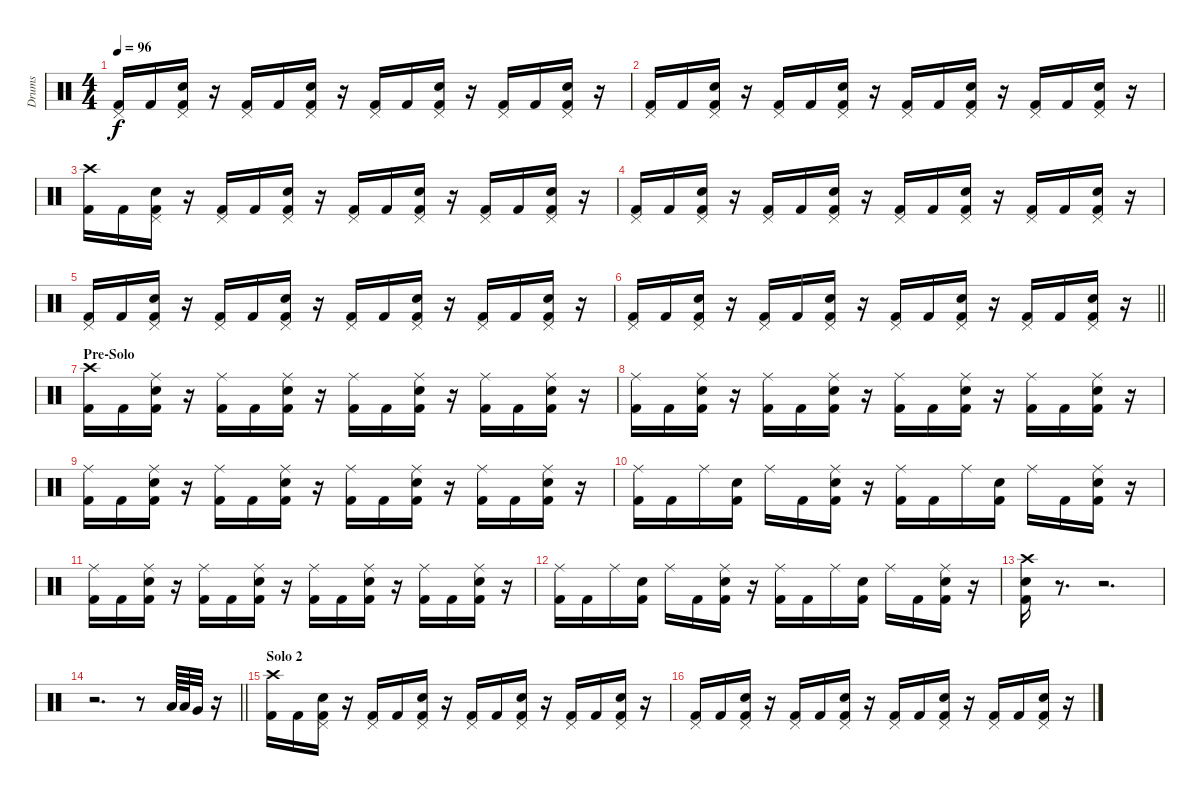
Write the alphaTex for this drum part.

\track ("Drums" "Drums") {instrument percussion}
\staff {score}
\articulation defaults
\ts (4 4)
\tempo 96
\clef neutral
\ks c
("Pedal Hi-Hat (hit)" "Kick (hit) 2").16{dy f} "Kick (hit) 2".16 ("Pedal Hi-Hat (hit)" "Snare (hit) 2" "Kick (hit) 2").16 r.16 ("Pedal Hi-Hat (hit)" "Kick (hit) 2").16 "Kick (hit) 2".16 ("Pedal Hi-Hat (hit)" "Snare (hit) 2" "Kick (hit) 2").16 r.16 ("Pedal Hi-Hat (hit)" "Kick (hit) 2").16 "Kick (hit) 2".16 ("Pedal Hi-Hat (hit)" "Snare (hit) 2" "Kick (hit) 2").16 r.16 ("Pedal Hi-Hat (hit)" "Kick (hit) 2").16 "Kick (hit) 2".16 ("Pedal Hi-Hat (hit)" "Snare (hit) 2" "Kick (hit) 2").16 r.16 |
("Pedal Hi-Hat (hit)" "Kick (hit) 2").16 "Kick (hit) 2".16 ("Pedal Hi-Hat (hit)" "Snare (hit) 2" "Kick (hit) 2").16 r.16 ("Pedal Hi-Hat (hit)" "Kick (hit) 2").16 "Kick (hit) 2".16 ("Pedal Hi-Hat (hit)" "Snare (hit) 2" "Kick (hit) 2").16 r.16 ("Pedal Hi-Hat (hit)" "Kick (hit) 2").16 "Kick (hit) 2".16 ("Pedal Hi-Hat (hit)" "Snare (hit) 2" "Kick (hit) 2").16 r.16 ("Pedal Hi-Hat (hit)" "Kick (hit) 2").16 "Kick (hit) 2".16 ("Pedal Hi-Hat (hit)" "Snare (hit) 2" "Kick (hit) 2").16 r.16 |
("Crash high (hit)" "Kick (hit) 2").16 "Kick (hit) 2".16 ("Pedal Hi-Hat (hit)" "Snare (hit) 2" "Kick (hit) 2").16 r.16 ("Pedal Hi-Hat (hit)" "Kick (hit) 2").16 "Kick (hit) 2".16 ("Pedal Hi-Hat (hit)" "Snare (hit) 2" "Kick (hit) 2").16 r.16 ("Pedal Hi-Hat (hit)" "Kick (hit) 2").16 "Kick (hit) 2".16 ("Pedal Hi-Hat (hit)" "Snare (hit) 2" "Kick (hit) 2").16 r.16 ("Pedal Hi-Hat (hit)" "Kick (hit) 2").16 "Kick (hit) 2".16 ("Pedal Hi-Hat (hit)" "Snare (hit) 2" "Kick (hit) 2").16 r.16 |
("Pedal Hi-Hat (hit)" "Kick (hit) 2").16 "Kick (hit) 2".16 ("Pedal Hi-Hat (hit)" "Snare (hit) 2" "Kick (hit) 2").16 r.16 ("Pedal Hi-Hat (hit)" "Kick (hit) 2").16 "Kick (hit) 2".16 ("Pedal Hi-Hat (hit)" "Snare (hit) 2" "Kick (hit) 2").16 r.16 ("Pedal Hi-Hat (hit)" "Kick (hit) 2").16 "Kick (hit) 2".16 ("Pedal Hi-Hat (hit)" "Snare (hit) 2" "Kick (hit) 2").16 r.16 ("Pedal Hi-Hat (hit)" "Kick (hit) 2").16 "Kick (hit) 2".16 ("Pedal Hi-Hat (hit)" "Snare (hit) 2" "Kick (hit) 2").16 r.16 |
("Pedal Hi-Hat (hit)" "Kick (hit) 2").16 "Kick (hit) 2".16 ("Pedal Hi-Hat (hit)" "Snare (hit) 2" "Kick (hit) 2").16 r.16 ("Pedal Hi-Hat (hit)" "Kick (hit) 2").16 "Kick (hit) 2".16 ("Pedal Hi-Hat (hit)" "Snare (hit) 2" "Kick (hit) 2").16 r.16 ("Pedal Hi-Hat (hit)" "Kick (hit) 2").16 "Kick (hit) 2".16 ("Pedal Hi-Hat (hit)" "Snare (hit) 2" "Kick (hit) 2").16 r.16 ("Pedal Hi-Hat (hit)" "Kick (hit) 2").16 "Kick (hit) 2".16 ("Pedal Hi-Hat (hit)" "Snare (hit) 2" "Kick (hit) 2").16 r.16 |
\barLineRight lightlight
("Pedal Hi-Hat (hit)" "Kick (hit) 2").16 "Kick (hit) 2".16 ("Pedal Hi-Hat (hit)" "Snare (hit) 2" "Kick (hit) 2").16 r.16 ("Pedal Hi-Hat (hit)" "Kick (hit) 2").16 "Kick (hit) 2".16 ("Pedal Hi-Hat (hit)" "Snare (hit) 2" "Kick (hit) 2").16 r.16 ("Pedal Hi-Hat (hit)" "Kick (hit) 2").16 "Kick (hit) 2".16 ("Pedal Hi-Hat (hit)" "Snare (hit) 2" "Kick (hit) 2").16 r.16 ("Pedal Hi-Hat (hit)" "Kick (hit) 2").16 "Kick (hit) 2".16 ("Pedal Hi-Hat (hit)" "Snare (hit) 2" "Kick (hit) 2").16 r.16 |
\section ("" "Pre-Solo")
("Crash high (hit)" "Kick (hit) 2").16 "Kick (hit) 2".16 ("Ride (middle)" "Snare (hit) 2" "Kick (hit) 2").16 r.16 ("Ride (middle)" "Kick (hit) 2").16 "Kick (hit) 2".16 ("Ride (middle)" "Snare (hit) 2" "Kick (hit) 2").16 r.16 ("Ride (middle)" "Kick (hit) 2").16 "Kick (hit) 2".16 ("Ride (middle)" "Snare (hit) 2" "Kick (hit) 2").16 r.16 ("Ride (middle)" "Kick (hit) 2").16 "Kick (hit) 2".16 ("Ride (middle)" "Snare (hit) 2" "Kick (hit) 2").16 r.16 |
("Ride (middle)" "Kick (hit) 2").16 "Kick (hit) 2".16 ("Ride (middle)" "Snare (hit) 2" "Kick (hit) 2").16 r.16 ("Ride (middle)" "Kick (hit) 2").16 "Kick (hit) 2".16 ("Ride (middle)" "Snare (hit) 2" "Kick (hit) 2").16 r.16 ("Ride (middle)" "Kick (hit) 2").16 "Kick (hit) 2".16 ("Ride (middle)" "Snare (hit) 2" "Kick (hit) 2").16 r.16 ("Ride (middle)" "Kick (hit) 2").16 "Kick (hit) 2".16 ("Ride (middle)" "Snare (hit) 2" "Kick (hit) 2").16 r.16 |
("Ride (middle)" "Kick (hit) 2").16 "Kick (hit) 2".16 ("Ride (middle)" "Snare (hit) 2" "Kick (hit) 2").16 r.16 ("Ride (middle)" "Kick (hit) 2").16 "Kick (hit) 2".16 ("Ride (middle)" "Snare (hit) 2" "Kick (hit) 2").16 r.16 ("Ride (middle)" "Kick (hit) 2").16 "Kick (hit) 2".16 ("Ride (middle)" "Snare (hit) 2" "Kick (hit) 2").16 r.16 ("Ride (middle)" "Kick (hit) 2").16 "Kick (hit) 2".16 ("Ride (middle)" "Snare (hit) 2" "Kick (hit) 2").16 r.16 |
("Ride (middle)" "Kick (hit) 2").16 "Kick (hit) 2".16 "Ride (middle)".16 ("Snare (hit) 2" "Kick (hit) 2").16 "Ride (middle)".16 "Kick (hit) 2".16 ("Ride (middle)" "Snare (hit) 2" "Kick (hit) 2").16 r.16 ("Ride (middle)" "Kick (hit) 2").16 "Kick (hit) 2".16 "Ride (middle)".16 ("Snare (hit) 2" "Kick (hit) 2").16 "Ride (middle)".16 "Kick (hit) 2".16 ("Ride (middle)" "Snare (hit) 2" "Kick (hit) 2").16 r.16 |
("Ride (middle)" "Kick (hit) 2").16 "Kick (hit) 2".16 ("Ride (middle)" "Snare (hit) 2" "Kick (hit) 2").16 r.16 ("Ride (middle)" "Kick (hit) 2").16 "Kick (hit) 2".16 ("Ride (middle)" "Snare (hit) 2" "Kick (hit) 2").16 r.16 ("Ride (middle)" "Kick (hit) 2").16 "Kick (hit) 2".16 ("Ride (middle)" "Snare (hit) 2" "Kick (hit) 2").16 r.16 ("Ride (middle)" "Kick (hit) 2").16 "Kick (hit) 2".16 ("Ride (middle)" "Snare (hit) 2" "Kick (hit) 2").16 r.16 |
("Ride (middle)" "Kick (hit) 2").16 "Kick (hit) 2".16 "Ride (middle)".16 ("Snare (hit) 2" "Kick (hit) 2").16 "Ride (middle)".16 "Kick (hit) 2".16 ("Ride (middle)" "Snare (hit) 2" "Kick (hit) 2").16 r.16 ("Ride (middle)" "Kick (hit) 2").16 "Kick (hit) 2".16 "Ride (middle)".16 ("Snare (hit) 2" "Kick (hit) 2").16 "Ride (middle)".16 "Kick (hit) 2".16 ("Ride (middle)" "Snare (hit) 2" "Kick (hit) 2").16 r.16 |
("Crash high (hit)" "Snare (hit) 2" "Kick (hit) 2").16 r.8{d} r.2{d} |
\barLineRight lightlight
r.2{d} r.8 "Low Tom (hit)".64 "Low Tom (hit)".64 "Very Low Tom (hit)".32 r.16 |
\section ("" "Solo 2")
("Crash high (hit)" "Kick (hit) 2").16 "Kick (hit) 2".16 ("Pedal Hi-Hat (hit)" "Snare (hit) 2" "Kick (hit) 2").16 r.16 ("Pedal Hi-Hat (hit)" "Kick (hit) 2").16 "Kick (hit) 2".16 ("Pedal Hi-Hat (hit)" "Snare (hit) 2" "Kick (hit) 2").16 r.16 ("Pedal Hi-Hat (hit)" "Kick (hit) 2").16 "Kick (hit) 2".16 ("Pedal Hi-Hat (hit)" "Snare (hit) 2" "Kick (hit) 2").16 r.16 ("Pedal Hi-Hat (hit)" "Kick (hit) 2").16 "Kick (hit) 2".16 ("Pedal Hi-Hat (hit)" "Snare (hit) 2" "Kick (hit) 2").16 r.16 |
("Pedal Hi-Hat (hit)" "Kick (hit) 2").16 "Kick (hit) 2".16 ("Pedal Hi-Hat (hit)" "Snare (hit) 2" "Kick (hit) 2").16 r.16 ("Pedal Hi-Hat (hit)" "Kick (hit) 2").16 "Kick (hit) 2".16 ("Pedal Hi-Hat (hit)" "Snare (hit) 2" "Kick (hit) 2").16 r.16 ("Pedal Hi-Hat (hit)" "Kick (hit) 2").16 "Kick (hit) 2".16 ("Pedal Hi-Hat (hit)" "Snare (hit) 2" "Kick (hit) 2").16 r.16 ("Pedal Hi-Hat (hit)" "Kick (hit) 2").16 "Kick (hit) 2".16 ("Pedal Hi-Hat (hit)" "Snare (hit) 2" "Kick (hit) 2").16 r.16
